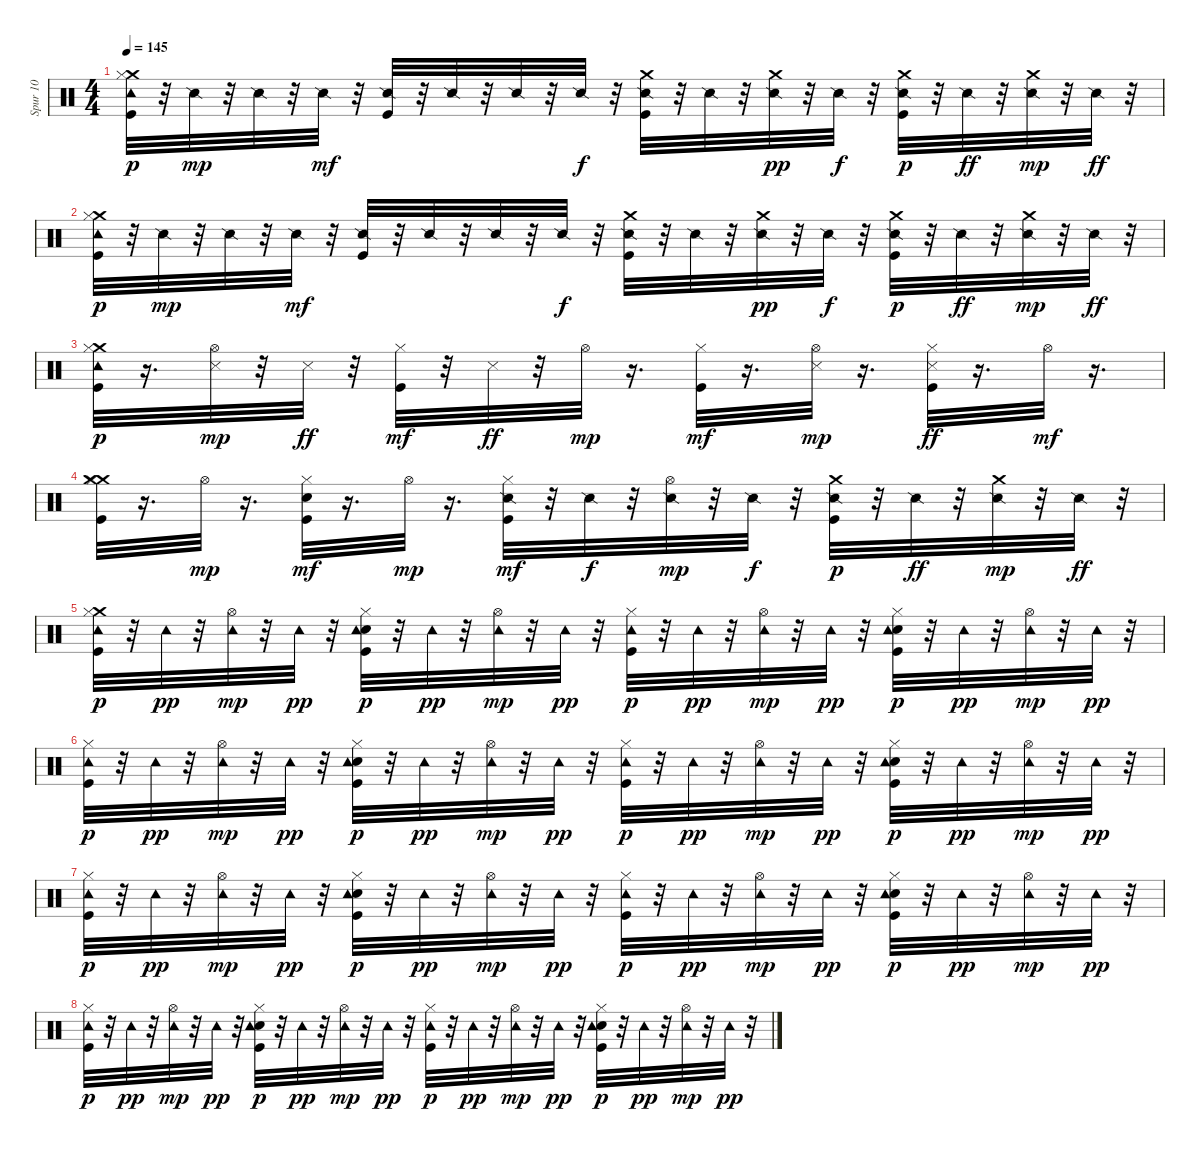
\track ("Spur 10" "Spur 10") {instrument percussion}
\staff {score}
\articulation defaults
\ts (4 4)
\tempo 145
\clef neutral
\ks c
("Crash medium (hit)" "Kick (hit)" "Hi-Hat (closed)" "Tambourine (hit)").32{dy p balance 8} r.32 "Snare (side stick) 2".32{dy mp} r.32 "Snare (side stick) 2".32 r.32 "Snare (side stick) 2".32{dy mf} r.32 ("Snare (side stick) 2" "Kick (hit)").32 r.32 "Snare (side stick) 2".32 r.32 "Snare (side stick) 2".32 r.32 "Snare (side stick) 2".32{dy f} r.32 ("Snare (side stick) 2" "Kick (hit)" "Crash medium (hit)").32{balance 10} r.32 "Snare (side stick) 2".32 r.32 ("Snare (side stick) 2" "Crash medium (hit)").32{dy pp balance 14} r.32 "Snare (side stick) 2".32{dy f} r.32 ("Snare (side stick) 2" "Kick (hit)" "Crash medium (hit)").32{dy p balance 7} r.32 "Snare (side stick) 2".32{dy ff} r.32 ("Snare (side stick) 2" "Crash medium (hit)").32{dy mp balance 0} r.32 "Snare (side stick) 2".32{dy ff} r.32 |
("Crash medium (hit)" "Kick (hit)" "Hi-Hat (closed)" "Tambourine (hit)").32{dy p balance 8} r.32 "Snare (side stick) 2".32{dy mp} r.32 "Snare (side stick) 2".32 r.32 "Snare (side stick) 2".32{dy mf} r.32 ("Snare (side stick) 2" "Kick (hit)").32 r.32 "Snare (side stick) 2".32 r.32 "Snare (side stick) 2".32 r.32 "Snare (side stick) 2".32{dy f} r.32 ("Snare (side stick) 2" "Kick (hit)" "Crash medium (hit)").32{balance 10} r.32 "Snare (side stick) 2".32 r.32 ("Snare (side stick) 2" "Crash medium (hit)").32{dy pp balance 14} r.32 "Snare (side stick) 2".32{dy f} r.32 ("Snare (side stick) 2" "Kick (hit)" "Crash medium (hit)").32{dy p balance 7} r.32 "Snare (side stick) 2".32{dy ff} r.32 ("Snare (side stick) 2" "Crash medium (hit)").32{dy mp balance 0} r.32 "Snare (side stick) 2".32{dy ff} r.32 |
("Crash medium (hit)" "Kick (hit)" "Hi-Hat (closed)" "Tambourine (hit)").32{dy p balance 8} r.16{d} ("Snare (side stick) 3" "Hi-Hat (open)").32{dy mp} r.32 "Snare (side stick) 3".32{dy ff} r.32 ("Kick (hit)" "Hi-Hat (closed)").32{dy mf} r.32 "Snare (side stick) 3".32{dy ff} r.32 "Hi-Hat (open)".32{dy mp} r.16{d} ("Kick (hit)" "Hi-Hat (closed)").32{dy mf} r.16{d} ("Snare (side stick) 3" "Hi-Hat (open)").32{dy mp} r.16{d} ("Kick (hit)" "Snare (side stick) 3" "Hi-Hat (closed)").32{dy ff} r.16{d} "Hi-Hat (open)".32{dy mf} r.16{d} |
("Crash medium (hit)" "Kick (hit)" "Hi-Hat (closed)" "Crash medium (hit)").32 r.16{d} "Hi-Hat (open)".32{dy mp} r.16{d} ("Kick (hit)" "Snare (hit) 2" "Hi-Hat (closed)").32{dy mf} r.16{d} "Hi-Hat (open)".32{dy mp} r.16{d} ("Snare (side stick) 2" "Kick (hit)" "Hi-Hat (closed)").32{dy mf} r.32 "Snare (side stick) 2".32{dy f} r.32 ("Snare (side stick) 2" "Hi-Hat (open)").32{dy mp balance 11} r.32 "Snare (side stick) 2".32{dy f} r.32 ("Snare (side stick) 2" "Kick (hit)" "Crash medium (hit)").32{dy p balance 7} r.32 "Snare (side stick) 2".32{dy ff} r.32 ("Snare (side stick) 2" "Crash medium (hit)").32{dy mp balance 0} r.32 "Snare (side stick) 2".32{dy ff} r.32 |
("Crash medium (hit)" "Kick (hit)" "Hi-Hat (closed)" "Tambourine (hit)").32{dy p balance 8} r.32 "Tambourine (hit)".32{dy pp} r.32 ("Hi-Hat (open)" "Tambourine (hit)").32{dy mp} r.32 "Tambourine (hit)".32{dy pp} r.32 ("Kick (hit)" "Snare (hit) 2" "Hi-Hat (closed)" "Tambourine (hit)").32{dy p} r.32 "Tambourine (hit)".32{dy pp} r.32 ("Hi-Hat (open)" "Tambourine (hit)").32{dy mp} r.32 "Tambourine (hit)".32{dy pp} r.32 ("Kick (hit)" "Hi-Hat (closed)" "Tambourine (hit)").32{dy p} r.32 "Tambourine (hit)".32{dy pp} r.32 ("Hi-Hat (open)" "Tambourine (hit)").32{dy mp} r.32 "Tambourine (hit)".32{dy pp} r.32 ("Kick (hit)" "Snare (hit) 2" "Hi-Hat (closed)" "Tambourine (hit)").32{dy p} r.32 "Tambourine (hit)".32{dy pp} r.32 ("Hi-Hat (open)" "Tambourine (hit)").32{dy mp} r.32 "Tambourine (hit)".32{dy pp} r.32 |
("Kick (hit)" "Hi-Hat (closed)" "Tambourine (hit)").32{dy p} r.32 "Tambourine (hit)".32{dy pp} r.32 ("Hi-Hat (open)" "Tambourine (hit)").32{dy mp} r.32 "Tambourine (hit)".32{dy pp} r.32 ("Kick (hit)" "Snare (hit) 2" "Hi-Hat (closed)" "Tambourine (hit)").32{dy p} r.32 "Tambourine (hit)".32{dy pp} r.32 ("Hi-Hat (open)" "Tambourine (hit)").32{dy mp} r.32 "Tambourine (hit)".32{dy pp} r.32 ("Kick (hit)" "Hi-Hat (closed)" "Tambourine (hit)").32{dy p} r.32 "Tambourine (hit)".32{dy pp} r.32 ("Hi-Hat (open)" "Tambourine (hit)").32{dy mp} r.32 "Tambourine (hit)".32{dy pp} r.32 ("Kick (hit)" "Snare (hit) 2" "Hi-Hat (closed)" "Tambourine (hit)").32{dy p} r.32 "Tambourine (hit)".32{dy pp} r.32 ("Hi-Hat (open)" "Tambourine (hit)").32{dy mp} r.32 "Tambourine (hit)".32{dy pp} r.32 |
("Kick (hit)" "Hi-Hat (closed)" "Tambourine (hit)").32{dy p} r.32 "Tambourine (hit)".32{dy pp} r.32 ("Hi-Hat (open)" "Tambourine (hit)").32{dy mp} r.32 "Tambourine (hit)".32{dy pp} r.32 ("Kick (hit)" "Snare (hit) 2" "Hi-Hat (closed)" "Tambourine (hit)").32{dy p} r.32 "Tambourine (hit)".32{dy pp} r.32 ("Hi-Hat (open)" "Tambourine (hit)").32{dy mp} r.32 "Tambourine (hit)".32{dy pp} r.32 ("Kick (hit)" "Hi-Hat (closed)" "Tambourine (hit)").32{dy p} r.32 "Tambourine (hit)".32{dy pp} r.32 ("Hi-Hat (open)" "Tambourine (hit)").32{dy mp} r.32 "Tambourine (hit)".32{dy pp} r.32 ("Kick (hit)" "Snare (hit) 2" "Hi-Hat (closed)" "Tambourine (hit)").32{dy p} r.32 "Tambourine (hit)".32{dy pp} r.32 ("Hi-Hat (open)" "Tambourine (hit)").32{dy mp} r.32 "Tambourine (hit)".32{dy pp} r.32 |
("Kick (hit)" "Hi-Hat (closed)" "Tambourine (hit)").32{dy p} r.32 "Tambourine (hit)".32{dy pp} r.32 ("Hi-Hat (open)" "Tambourine (hit)").32{dy mp} r.32 "Tambourine (hit)".32{dy pp} r.32 ("Kick (hit)" "Snare (hit) 2" "Hi-Hat (closed)" "Tambourine (hit)").32{dy p} r.32 "Tambourine (hit)".32{dy pp} r.32 ("Hi-Hat (open)" "Tambourine (hit)").32{dy mp} r.32 "Tambourine (hit)".32{dy pp} r.32 ("Kick (hit)" "Hi-Hat (closed)" "Tambourine (hit)").32{dy p} r.32 "Tambourine (hit)".32{dy pp} r.32 ("Hi-Hat (open)" "Tambourine (hit)").32{dy mp} r.32 "Tambourine (hit)".32{dy pp} r.32 ("Kick (hit)" "Snare (hit) 2" "Hi-Hat (closed)" "Tambourine (hit)").32{dy p} r.32 "Tambourine (hit)".32{dy pp} r.32 ("Hi-Hat (open)" "Tambourine (hit)").32{dy mp} r.32 "Tambourine (hit)".32{dy pp} r.32
